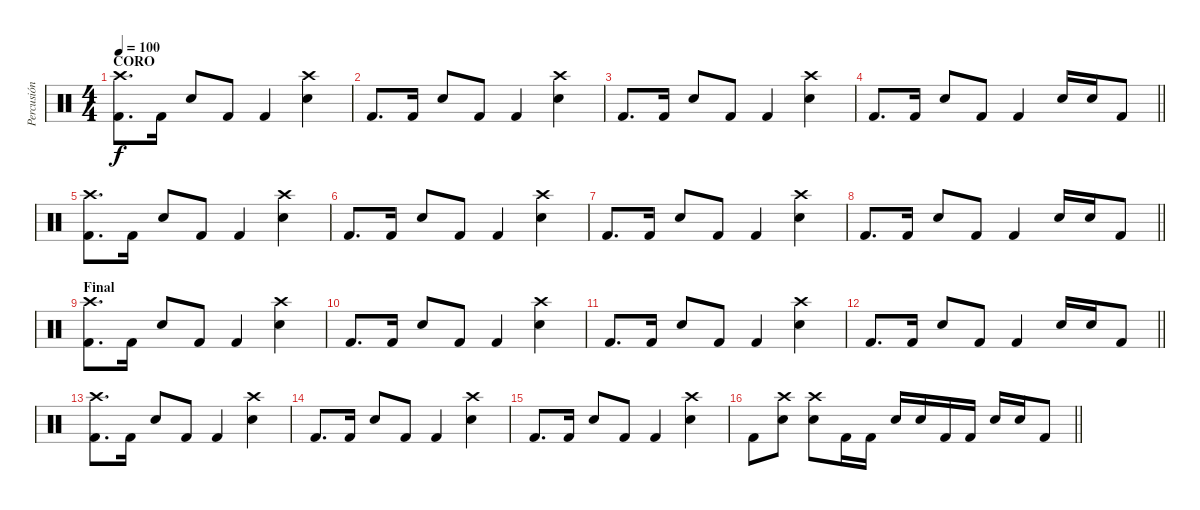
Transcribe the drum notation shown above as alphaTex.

\track ("Percusión" "Percusión") {instrument percussion}
\staff {score}
\articulation defaults
\ts (4 4)
\section ("" "CORO")
\tempo 100
\clef neutral
\ks c
("Crash high (hit)" "Kick (hit) 2").8{d dy f} "Kick (hit) 2".16 "Electric Snare (hit)".8 "Kick (hit) 2".8 "Kick (hit) 2".4 ("Crash high (hit)" "Electric Snare (hit)").4 |
"Kick (hit) 2".8{d} "Kick (hit) 2".16 "Electric Snare (hit)".8 "Kick (hit) 2".8 "Kick (hit) 2".4 ("Crash high (hit)" "Electric Snare (hit)").4 |
"Kick (hit) 2".8{d} "Kick (hit) 2".16 "Electric Snare (hit)".8 "Kick (hit) 2".8 "Kick (hit) 2".4 ("Crash high (hit)" "Electric Snare (hit)").4 |
\barLineRight lightlight "Kick (hit) 2".8{d} "Kick (hit) 2".16 "Electric Snare (hit)".8 "Kick (hit) 2".8 "Kick (hit) 2".4 "Electric Snare (hit)".16 "Electric Snare (hit)".16 "Kick (hit) 2".8
|
("Crash high (hit)" "Kick (hit) 2").8{d} "Kick (hit) 2".16 "Electric Snare (hit)".8 "Kick (hit) 2".8 "Kick (hit) 2".4 ("Crash high (hit)" "Electric Snare (hit)").4 |
"Kick (hit) 2".8{d} "Kick (hit) 2".16 "Electric Snare (hit)".8 "Kick (hit) 2".8 "Kick (hit) 2".4 ("Crash high (hit)" "Electric Snare (hit)").4 |
"Kick (hit) 2".8{d} "Kick (hit) 2".16 "Electric Snare (hit)".8 "Kick (hit) 2".8 "Kick (hit) 2".4 ("Crash high (hit)" "Electric Snare (hit)").4 |
\barLineRight lightlight "Kick (hit) 2".8{d} "Kick (hit) 2".16 "Electric Snare (hit)".8 "Kick (hit) 2".8 "Kick (hit) 2".4 "Electric Snare (hit)".16 "Electric Snare (hit)".16 "Kick (hit) 2".8
|
\section ("" "Final")
("Crash high (hit)" "Kick (hit) 2").8{d} "Kick (hit) 2".16 "Electric Snare (hit)".8 "Kick (hit) 2".8 "Kick (hit) 2".4 ("Crash high (hit)" "Electric Snare (hit)").4 |
"Kick (hit) 2".8{d} "Kick (hit) 2".16 "Electric Snare (hit)".8 "Kick (hit) 2".8 "Kick (hit) 2".4 ("Crash high (hit)" "Electric Snare (hit)").4 |
"Kick (hit) 2".8{d} "Kick (hit) 2".16 "Electric Snare (hit)".8 "Kick (hit) 2".8 "Kick (hit) 2".4 ("Crash high (hit)" "Electric Snare (hit)").4 |
\barLineRight lightlight "Kick (hit) 2".8{d} "Kick (hit) 2".16 "Electric Snare (hit)".8 "Kick (hit) 2".8 "Kick (hit) 2".4 "Electric Snare (hit)".16 "Electric Snare (hit)".16 "Kick (hit) 2".8
|
("Crash high (hit)" "Kick (hit) 2").8{d} "Kick (hit) 2".16 "Electric Snare (hit)".8 "Kick (hit) 2".8 "Kick (hit) 2".4 ("Crash high (hit)" "Electric Snare (hit)").4 |
"Kick (hit) 2".8{d} "Kick (hit) 2".16 "Electric Snare (hit)".8 "Kick (hit) 2".8 "Kick (hit) 2".4 ("Crash high (hit)" "Electric Snare (hit)").4 |
"Kick (hit) 2".8{d} "Kick (hit) 2".16 "Electric Snare (hit)".8 "Kick (hit) 2".8 "Kick (hit) 2".4 ("Crash high (hit)" "Electric Snare (hit)").4 |
\barLineRight lightlight "Kick (hit) 2".8
("Crash high (hit)" "Electric Snare (hit)").8 ("Crash high (hit)" "Electric Snare (hit)").8 "Kick (hit) 2".16 "Kick (hit) 2".16 "Electric Snare (hit)".16 "Electric Snare (hit)".16 "Kick (hit) 2".16 "Kick (hit) 2".16 "Electric Snare (hit)".16 "Electric Snare (hit)".16 "Kick (hit) 2".8
